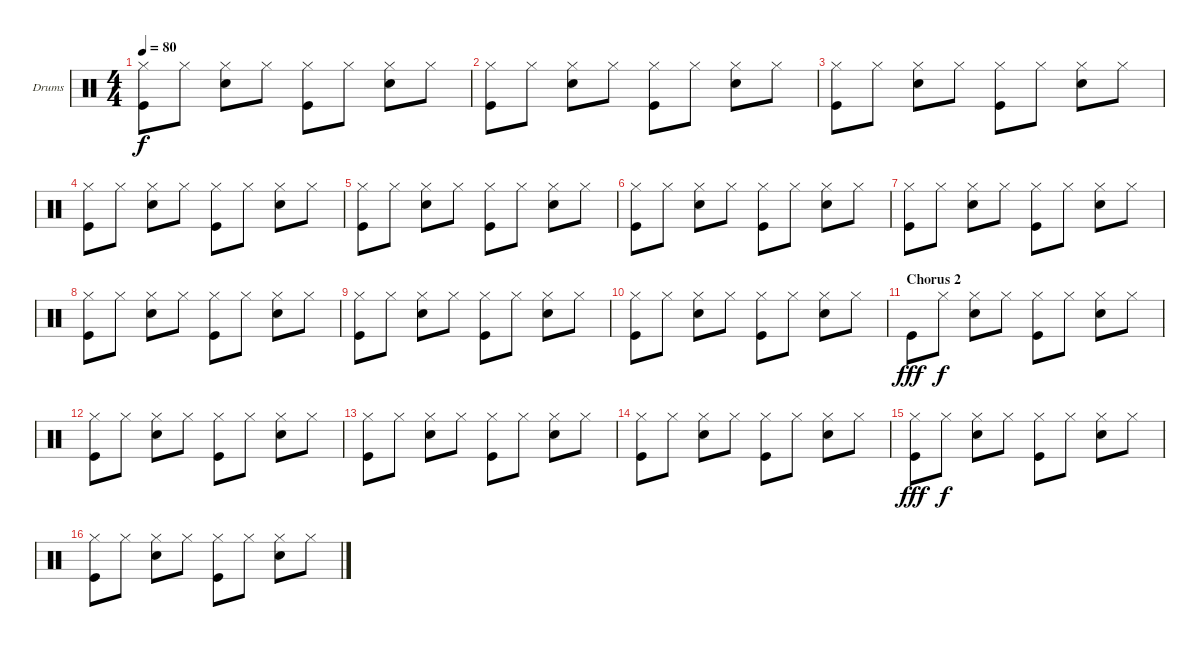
\bracketExtendMode groupsimilarinstruments
\firstSystemTrackNameOrientation horizontal
\otherSystemsTrackNameOrientation horizontal
\chordDiagramsInScore
\track ("Drumkit" "Drums") {instrument percussion}
\staff {score}
\articulation defaults
\ts (4 4)
\tempo 80
\clef neutral
\ks c
("Hi-Hat (closed)" "Kick (hit)").8{dy f} "Hi-Hat (closed)".8 ("Hi-Hat (closed)" "Snare (hit) 2").8 "Hi-Hat (closed)".8 ("Hi-Hat (closed)" "Kick (hit)").8 "Hi-Hat (closed)".8 ("Hi-Hat (closed)" "Snare (hit) 2").8 "Hi-Hat (closed)".8 |
("Hi-Hat (closed)" "Kick (hit)").8 "Hi-Hat (closed)".8 ("Hi-Hat (closed)" "Snare (hit) 2").8 "Hi-Hat (closed)".8 ("Hi-Hat (closed)" "Kick (hit)").8 "Hi-Hat (closed)".8 ("Hi-Hat (closed)" "Snare (hit) 2").8 "Hi-Hat (closed)".8 |
("Hi-Hat (closed)" "Kick (hit)").8 "Hi-Hat (closed)".8 ("Hi-Hat (closed)" "Snare (hit) 2").8 "Hi-Hat (closed)".8 ("Hi-Hat (closed)" "Kick (hit)").8 "Hi-Hat (closed)".8 ("Hi-Hat (closed)" "Snare (hit) 2").8 "Hi-Hat (closed)".8 |
("Hi-Hat (closed)" "Kick (hit)").8 "Hi-Hat (closed)".8 ("Hi-Hat (closed)" "Snare (hit) 2").8 "Hi-Hat (closed)".8 ("Hi-Hat (closed)" "Kick (hit)").8 "Hi-Hat (closed)".8 ("Hi-Hat (closed)" "Snare (hit) 2").8 "Hi-Hat (closed)".8 |
("Hi-Hat (closed)" "Kick (hit)").8 "Hi-Hat (closed)".8 ("Hi-Hat (closed)" "Snare (hit) 2").8 "Hi-Hat (closed)".8 ("Hi-Hat (closed)" "Kick (hit)").8 "Hi-Hat (closed)".8 ("Hi-Hat (closed)" "Snare (hit) 2").8 "Hi-Hat (closed)".8 |
("Hi-Hat (closed)" "Kick (hit)").8 "Hi-Hat (closed)".8 ("Hi-Hat (closed)" "Snare (hit) 2").8 "Hi-Hat (closed)".8 ("Hi-Hat (closed)" "Kick (hit)").8 "Hi-Hat (closed)".8 ("Hi-Hat (closed)" "Snare (hit) 2").8 "Hi-Hat (closed)".8 |
("Hi-Hat (closed)" "Kick (hit)").8 "Hi-Hat (closed)".8 ("Hi-Hat (closed)" "Snare (hit) 2").8 "Hi-Hat (closed)".8 ("Hi-Hat (closed)" "Kick (hit)").8 "Hi-Hat (closed)".8 ("Hi-Hat (closed)" "Snare (hit) 2").8 "Hi-Hat (closed)".8 |
("Hi-Hat (closed)" "Kick (hit)").8 "Hi-Hat (closed)".8 ("Hi-Hat (closed)" "Snare (hit) 2").8 "Hi-Hat (closed)".8 ("Hi-Hat (closed)" "Kick (hit)").8 "Hi-Hat (closed)".8 ("Hi-Hat (closed)" "Snare (hit) 2").8 "Hi-Hat (closed)".8 |
("Hi-Hat (closed)" "Kick (hit)").8 "Hi-Hat (closed)".8 ("Hi-Hat (closed)" "Snare (hit) 2").8 "Hi-Hat (closed)".8 ("Hi-Hat (closed)" "Kick (hit)").8 "Hi-Hat (closed)".8 ("Hi-Hat (closed)" "Snare (hit) 2").8 "Hi-Hat (closed)".8 |
("Hi-Hat (closed)" "Kick (hit)").8 "Hi-Hat (closed)".8 ("Hi-Hat (closed)" "Snare (hit) 2").8 "Hi-Hat (closed)".8 ("Hi-Hat (closed)" "Kick (hit)").8 "Hi-Hat (closed)".8 ("Hi-Hat (closed)" "Snare (hit) 2").8 "Hi-Hat (closed)".8 |
\section ("" "Chorus 2")
"Kick (hit)".8{dy fff} "Hi-Hat (closed)".8{dy f} ("Hi-Hat (closed)" "Snare (hit) 2").8 "Hi-Hat (closed)".8 ("Hi-Hat (closed)" "Kick (hit)").8 "Hi-Hat (closed)".8 ("Hi-Hat (closed)" "Snare (hit) 2").8 "Hi-Hat (closed)".8 |
("Hi-Hat (closed)" "Kick (hit)").8 "Hi-Hat (closed)".8 ("Hi-Hat (closed)" "Snare (hit) 2").8 "Hi-Hat (closed)".8 ("Hi-Hat (closed)" "Kick (hit)").8 "Hi-Hat (closed)".8 ("Hi-Hat (closed)" "Snare (hit) 2").8 "Hi-Hat (closed)".8 |
("Hi-Hat (closed)" "Kick (hit)").8 "Hi-Hat (closed)".8 ("Hi-Hat (closed)" "Snare (hit) 2").8 "Hi-Hat (closed)".8 ("Hi-Hat (closed)" "Kick (hit)").8 "Hi-Hat (closed)".8 ("Hi-Hat (closed)" "Snare (hit) 2").8 "Hi-Hat (closed)".8 |
("Hi-Hat (closed)" "Kick (hit)").8 "Hi-Hat (closed)".8 ("Hi-Hat (closed)" "Snare (hit) 2").8 "Hi-Hat (closed)".8 ("Hi-Hat (closed)" "Kick (hit)").8 "Hi-Hat (closed)".8 ("Hi-Hat (closed)" "Snare (hit) 2").8 "Hi-Hat (closed)".8 |
("Hi-Hat (closed)" "Kick (hit)").8{dy fff} "Hi-Hat (closed)".8{dy f} ("Hi-Hat (closed)" "Snare (hit) 2").8 "Hi-Hat (closed)".8 ("Hi-Hat (closed)" "Kick (hit)").8 "Hi-Hat (closed)".8 ("Hi-Hat (closed)" "Snare (hit) 2").8 "Hi-Hat (closed)".8 |
("Hi-Hat (closed)" "Kick (hit)").8 "Hi-Hat (closed)".8 ("Hi-Hat (closed)" "Snare (hit) 2").8 "Hi-Hat (closed)".8 ("Hi-Hat (closed)" "Kick (hit)").8 "Hi-Hat (closed)".8 ("Hi-Hat (closed)" "Snare (hit) 2").8 "Hi-Hat (closed)".8
